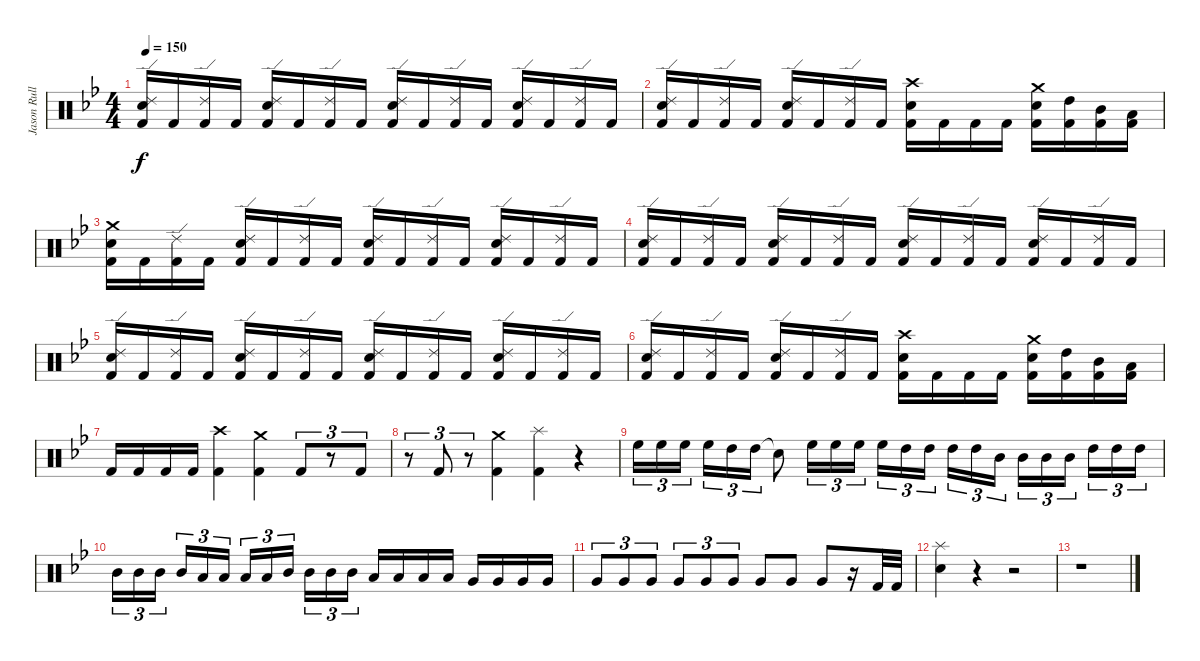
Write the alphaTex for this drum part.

\track ("Jason Rullo" "Jason Rull") {instrument percussion}
\staff {score}
\articulation defaults
\ts (4 4)
\tempo 150
\clef neutral
\ks gminor
("Ride (edge) 2" "Electric Snare (hit)" "Kick (hit) 2").16{dy f} "Kick (hit) 2".16 ("Ride (edge) 2" "Kick (hit) 2").16 "Kick (hit) 2".16 ("Ride (edge) 2" "Electric Snare (hit)" "Kick (hit) 2").16 "Kick (hit) 2".16 ("Ride (edge) 2" "Kick (hit) 2").16 "Kick (hit) 2".16 ("Ride (edge) 2" "Electric Snare (hit)" "Kick (hit) 2").16 "Kick (hit) 2".16 ("Ride (edge) 2" "Kick (hit) 2").16 "Kick (hit) 2".16 ("Ride (edge) 2" "Electric Snare (hit)" "Kick (hit) 2").16 "Kick (hit) 2".16 ("Ride (edge) 2" "Kick (hit) 2").16 "Kick (hit) 2".16 |
("Ride (edge) 2" "Electric Snare (hit)" "Kick (hit) 2").16 "Kick (hit) 2".16 ("Ride (edge) 2" "Kick (hit) 2").16 "Kick (hit) 2".16 ("Ride (edge) 2" "Electric Snare (hit)" "Kick (hit) 2").16 "Kick (hit) 2".16 ("Ride (edge) 2" "Kick (hit) 2").16 "Kick (hit) 2".16 ("Crash high (hit)" "Electric Snare (hit)" "Kick (hit) 2").16 "Kick (hit) 2".16 "Kick (hit) 2".16 "Kick (hit) 2".16 ("Crash medium (hit)" "Electric Snare (hit)" "Kick (hit) 2").16 ("High Tom (hit)" "Kick (hit) 2").16 ("Mid Tom (hit)" "Kick (hit) 2").16 ("Low Tom (hit)" "Kick (hit) 2").16 |
("Crash medium (hit)" "Electric Snare (hit)" "Kick (hit) 2").16 "Kick (hit) 2".16 ("Ride (edge) 2" "Kick (hit) 2").16 "Kick (hit) 2".16 ("Ride (edge) 2" "Electric Snare (hit)" "Kick (hit) 2").16 "Kick (hit) 2".16 ("Ride (edge) 2" "Kick (hit) 2").16 "Kick (hit) 2".16 ("Ride (edge) 2" "Electric Snare (hit)" "Kick (hit) 2").16 "Kick (hit) 2".16 ("Ride (edge) 2" "Kick (hit) 2").16 "Kick (hit) 2".16 ("Ride (edge) 2" "Electric Snare (hit)" "Kick (hit) 2").16 "Kick (hit) 2".16 ("Ride (edge) 2" "Kick (hit) 2").16 "Kick (hit) 2".16 |
("Ride (edge) 2" "Electric Snare (hit)" "Kick (hit) 2").16 "Kick (hit) 2".16 ("Ride (edge) 2" "Kick (hit) 2").16 "Kick (hit) 2".16 ("Ride (edge) 2" "Electric Snare (hit)" "Kick (hit) 2").16 "Kick (hit) 2".16 ("Ride (edge) 2" "Kick (hit) 2").16 "Kick (hit) 2".16 ("Ride (edge) 2" "Electric Snare (hit)" "Kick (hit) 2").16 "Kick (hit) 2".16 ("Ride (edge) 2" "Kick (hit) 2").16 "Kick (hit) 2".16 ("Ride (edge) 2" "Electric Snare (hit)" "Kick (hit) 2").16 "Kick (hit) 2".16 ("Ride (edge) 2" "Kick (hit) 2").16 "Kick (hit) 2".16 |
("Ride (edge) 2" "Electric Snare (hit)" "Kick (hit) 2").16 "Kick (hit) 2".16 ("Ride (edge) 2" "Kick (hit) 2").16 "Kick (hit) 2".16 ("Ride (edge) 2" "Electric Snare (hit)" "Kick (hit) 2").16 "Kick (hit) 2".16 ("Ride (edge) 2" "Kick (hit) 2").16 "Kick (hit) 2".16 ("Ride (edge) 2" "Electric Snare (hit)" "Kick (hit) 2").16 "Kick (hit) 2".16 ("Ride (edge) 2" "Kick (hit) 2").16 "Kick (hit) 2".16 ("Ride (edge) 2" "Electric Snare (hit)" "Kick (hit) 2").16 "Kick (hit) 2".16 ("Ride (edge) 2" "Kick (hit) 2").16 "Kick (hit) 2".16 |
("Ride (edge) 2" "Electric Snare (hit)" "Kick (hit) 2").16 "Kick (hit) 2".16 ("Ride (edge) 2" "Kick (hit) 2").16 "Kick (hit) 2".16 ("Ride (edge) 2" "Electric Snare (hit)" "Kick (hit) 2").16 "Kick (hit) 2".16 ("Ride (edge) 2" "Kick (hit) 2").16 "Kick (hit) 2".16 ("Crash high (hit)" "Electric Snare (hit)" "Kick (hit) 2").16 "Kick (hit) 2".16 "Kick (hit) 2".16 "Kick (hit) 2".16 ("Crash medium (hit)" "Electric Snare (hit)" "Kick (hit) 2").16 ("High Tom (hit)" "Kick (hit) 2").16 ("Mid Tom (hit)" "Kick (hit) 2").16 ("Low Tom (hit)" "Kick (hit) 2").16 |
"Kick (hit) 2".16 "Kick (hit) 2".16 "Kick (hit) 2".16 "Kick (hit) 2".16 ("Crash high (hit)" "Kick (hit) 2").4 ("Crash medium (hit)" "Kick (hit) 2").4 "Kick (hit) 2".8{tu (3 2)} r.8{tu (3 2)} "Kick (hit) 2".8{tu (3 2)} |
r.8{tu (3 2)} "Kick (hit) 2".8{tu (3 2)} r.8{tu (3 2)} ("Crash medium (hit)" "Kick (hit) 2").4 ("Splash (hit)" "Kick (hit) 2").4 r.4 |
"High Floor Tom (hit)".16{tu (3 2)} "High Floor Tom (hit)".16{tu (3 2)} "High Floor Tom (hit)".16{tu (3 2) beam splitsecondary} "High Floor Tom (hit)".16{tu (3 2)} "High Tom (hit)".16{tu (3 2)} "High Tom (hit)".16{tu (3 2)} "Snare (hit)"{t}.8 "High Floor Tom (hit)".16{tu (3 2)} "High Floor Tom (hit)".16{tu (3 2)} "High Floor Tom (hit)".16{tu (3 2)} "High Floor Tom (hit)".16{tu (3 2)} "High Tom (hit)".16{tu (3 2)} "High Tom (hit)".16{tu (3 2) beam splitsecondary} "High Tom (hit)".16{tu (3 2)} "High Tom (hit)".16{tu (3 2)} "Mid Tom (hit)".16{tu (3 2)} "Mid Tom (hit)".16{tu (3 2)} "Mid Tom (hit)".16{tu (3 2)} "Mid Tom (hit)".16{tu (3 2) beam splitsecondary} "High Tom (hit)".16{tu (3 2)} "High Tom (hit)".16{tu (3 2)} "High Tom (hit)".16{tu (3 2)} |
"Mid Tom (hit)".16{tu (3 2)} "Mid Tom (hit)".16{tu (3 2)} "Mid Tom (hit)".16{tu (3 2) beam splitsecondary} "Mid Tom (hit)".16{tu (3 2)} "Low Tom (hit)".16{tu (3 2)} "Low Tom (hit)".16{tu (3 2)} "Low Tom (hit)".16{tu (3 2)} "Low Tom (hit)".16{tu (3 2)} "Mid Tom (hit)".16{tu (3 2) beam splitsecondary} "Mid Tom (hit)".16{tu (3 2)} "Mid Tom (hit)".16{tu (3 2)} "Mid Tom (hit)".16{tu (3 2)} "Low Tom (hit)".16 "Low Tom (hit)".16 "Low Tom (hit)".16 "Low Tom (hit)".16 "Very Low Tom (hit)".16 "Very Low Tom (hit)".16 "Very Low Tom (hit)".16 "Very Low Tom (hit)".16 |
"Very Low Tom (hit)".8{tu (3 2)} "Very Low Tom (hit)".8{tu (3 2)} "Very Low Tom (hit)".8{tu (3 2)} "Very Low Tom (hit)".8{tu (3 2)} "Very Low Tom (hit)".8{tu (3 2)} "Very Low Tom (hit)".8{tu (3 2)} "Very Low Tom (hit)".8 "Very Low Tom (hit)".8 "Very Low Tom (hit)".8 r.16 "Kick (hit) 2".32 "Kick (hit) 2".32 |
("Splash (hit)" "Electric Snare (hit)").4 r.4 r.2 |
r.1
